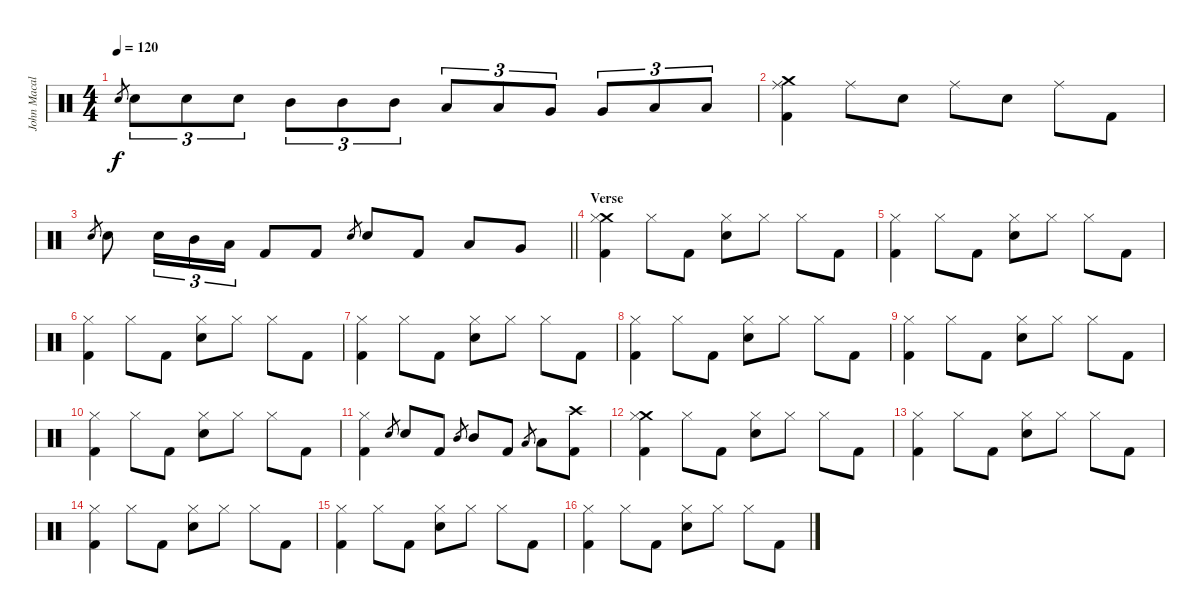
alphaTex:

\track ("John Macaluso" "John Macal") {instrument percussion}
\staff {score}
\articulation defaults
\ts (4 4)
\tempo 120
\clef neutral
\ks c "Snare (hit) 2".8{gr dy f} "Snare (hit) 2".8{tu (3 2)} "Snare (hit) 2".8{tu (3 2)} "Snare (hit) 2".8{tu (3 2)} "Mid Tom (hit)".8{tu (3 2)} "Mid Tom (hit)".8{tu (3 2)} "Mid Tom (hit)".8{tu (3 2)} "Low Tom (hit)".8{tu (3 2)} "Low Tom (hit)".8{tu (3 2)} "Very Low Tom (hit)".8{tu (3 2)} "Very Low Tom (hit)".8{tu (3 2)} "Low Floor Tom (hit)".8{tu (3 2)} "Low Floor Tom (hit)".8{tu (3 2)}
|
("Crash medium (hit)" "Ride (middle)" "Kick (hit) 2").4 "Ride (middle)".8 "Snare (hit) 2".8 "Ride (middle)".8 "Snare (hit) 2".8 "Ride (middle)".8 "Kick (hit) 2".8 |
\barLineRight lightlight "Snare (hit) 2".8{gr} "Snare (hit) 2".8 "Snare (hit) 2".16{tu (3 2)} "Mid Tom (hit)".16{tu (3 2)} "Low Tom (hit)".16{tu (3 2)} "Kick (hit) 2".8 "Kick (hit) 2".8 "Snare (hit) 2".8{gr} "Snare (hit) 2".8 "Kick (hit) 2".8 "Low Tom (hit)".8 "Very Low Tom (hit)".8
|
\section ("" "Verse")
("Crash medium (hit)" "Hi-Hat (closed)" "Kick (hit) 2").4 "Hi-Hat (closed)".8 "Kick (hit) 2".8 ("Hi-Hat (closed)" "Snare (hit) 2").8 "Hi-Hat (closed)".8 "Hi-Hat (closed)".8 "Kick (hit) 2".8 |
("Hi-Hat (closed)" "Kick (hit) 2").4 "Hi-Hat (closed)".8 "Kick (hit) 2".8 ("Hi-Hat (closed)" "Snare (hit) 2").8 "Hi-Hat (closed)".8 "Hi-Hat (closed)".8 "Kick (hit) 2".8 |
("Hi-Hat (closed)" "Kick (hit) 2").4 "Hi-Hat (closed)".8 "Kick (hit) 2".8 ("Hi-Hat (closed)" "Snare (hit) 2").8 "Hi-Hat (closed)".8 "Hi-Hat (closed)".8 "Kick (hit) 2".8 |
("Hi-Hat (closed)" "Kick (hit) 2").4 "Hi-Hat (closed)".8 "Kick (hit) 2".8 ("Hi-Hat (closed)" "Snare (hit) 2").8 "Hi-Hat (closed)".8 "Hi-Hat (closed)".8 "Kick (hit) 2".8 |
("Hi-Hat (closed)" "Kick (hit) 2").4 "Hi-Hat (closed)".8 "Kick (hit) 2".8 ("Hi-Hat (closed)" "Snare (hit) 2").8 "Hi-Hat (closed)".8 "Hi-Hat (closed)".8 "Kick (hit) 2".8 |
("Hi-Hat (closed)" "Kick (hit) 2").4 "Hi-Hat (closed)".8 "Kick (hit) 2".8 ("Hi-Hat (closed)" "Snare (hit) 2").8 "Hi-Hat (closed)".8 "Hi-Hat (closed)".8 "Kick (hit) 2".8 |
("Hi-Hat (closed)" "Kick (hit) 2").4 "Hi-Hat (closed)".8 "Kick (hit) 2".8 ("Hi-Hat (closed)" "Snare (hit) 2").8 "Hi-Hat (closed)".8 "Hi-Hat (closed)".8 "Kick (hit) 2".8 |
("Hi-Hat (closed)" "Kick (hit) 2").4 "Snare (hit) 2".8{gr} "Snare (hit) 2".8 "Kick (hit) 2".8 "Mid Tom (hit)".8{gr} "Mid Tom (hit)".8 "Kick (hit) 2".8 "Low Tom (hit)".8{gr} "Low Tom (hit)".8 ("Crash high (hit)" "Kick (hit) 2").8 |
("Crash medium (hit)" "Hi-Hat (closed)" "Kick (hit) 2").4 "Hi-Hat (closed)".8 "Kick (hit) 2".8 ("Hi-Hat (closed)" "Snare (hit) 2").8 "Hi-Hat (closed)".8 "Hi-Hat (closed)".8 "Kick (hit) 2".8 |
("Hi-Hat (closed)" "Kick (hit) 2").4 "Hi-Hat (closed)".8 "Kick (hit) 2".8 ("Hi-Hat (closed)" "Snare (hit) 2").8 "Hi-Hat (closed)".8 "Hi-Hat (closed)".8 "Kick (hit) 2".8 |
("Hi-Hat (closed)" "Kick (hit) 2").4 "Hi-Hat (closed)".8 "Kick (hit) 2".8 ("Hi-Hat (closed)" "Snare (hit) 2").8 "Hi-Hat (closed)".8 "Hi-Hat (closed)".8 "Kick (hit) 2".8 |
("Hi-Hat (closed)" "Kick (hit) 2").4 "Hi-Hat (closed)".8 "Kick (hit) 2".8 ("Hi-Hat (closed)" "Snare (hit) 2").8 "Hi-Hat (closed)".8 "Hi-Hat (closed)".8 "Kick (hit) 2".8 |
("Hi-Hat (closed)" "Kick (hit) 2").4 "Hi-Hat (closed)".8 "Kick (hit) 2".8 ("Hi-Hat (closed)" "Snare (hit) 2").8 "Hi-Hat (closed)".8 "Hi-Hat (closed)".8 "Kick (hit) 2".8
